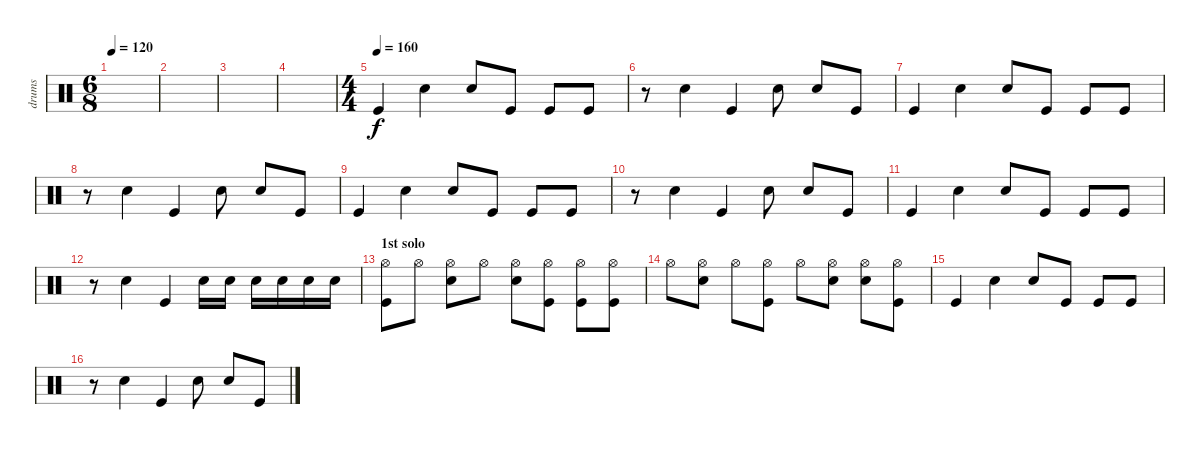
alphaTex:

\track ("drums" "drums") {instrument percussion}
\staff {score}
\articulation defaults
\ts (6 8)
\tempo 120
\clef neutral
\ks c
|
|
|
|
\ts (4 4)
\section ("" "")
\tempo (160)
"Kick (hit)".4 "Electric Snare (hit)".4 "Electric Snare (hit)".8 "Kick (hit)".8 "Kick (hit)".8 "Kick (hit)".8 |
r.8 "Electric Snare (hit)".4 "Kick (hit)".4 "Electric Snare (hit)".8 "Electric Snare (hit)".8 "Kick (hit)".8 |
"Kick (hit)".4 "Electric Snare (hit)".4 "Electric Snare (hit)".8 "Kick (hit)".8 "Kick (hit)".8 "Kick (hit)".8 |
r.8 "Electric Snare (hit)".4 "Kick (hit)".4 "Electric Snare (hit)".8 "Electric Snare (hit)".8 "Kick (hit)".8 |
"Kick (hit)".4 "Electric Snare (hit)".4 "Electric Snare (hit)".8 "Kick (hit)".8 "Kick (hit)".8 "Kick (hit)".8 |
r.8 "Electric Snare (hit)".4 "Kick (hit)".4 "Electric Snare (hit)".8 "Electric Snare (hit)".8 "Kick (hit)".8 |
"Kick (hit)".4 "Electric Snare (hit)".4 "Electric Snare (hit)".8 "Kick (hit)".8 "Kick (hit)".8 "Kick (hit)".8 |
r.8 "Electric Snare (hit)".4 "Kick (hit)".4 "Electric Snare (hit)".16 "Electric Snare (hit)".16 "Electric Snare (hit)".16 "Electric Snare (hit)".16 "Electric Snare (hit)".16 "Electric Snare (hit)".16 |
\section ("" "1st solo")
("Hi-Hat (open)" "Kick (hit)").8 "Hi-Hat (open)".8 ("Hi-Hat (open)" "Electric Snare (hit)").8 "Hi-Hat (open)".8 ("Hi-Hat (open)" "Electric Snare (hit)").8 ("Hi-Hat (open)" "Kick (hit)").8 ("Hi-Hat (open)" "Kick (hit)").8 ("Hi-Hat (open)" "Kick (hit)").8 |
"Hi-Hat (open)".8 ("Hi-Hat (open)" "Electric Snare (hit)").8 "Hi-Hat (open)".8 ("Hi-Hat (open)" "Kick (hit)").8 "Hi-Hat (open)".8 ("Hi-Hat (open)" "Electric Snare (hit)").8 ("Hi-Hat (open)" "Electric Snare (hit)").8 ("Hi-Hat (open)" "Kick (hit)").8 |
"Kick (hit)".4 "Electric Snare (hit)".4 "Electric Snare (hit)".8 "Kick (hit)".8 "Kick (hit)".8 "Kick (hit)".8 |
r.8 "Electric Snare (hit)".4 "Kick (hit)".4 "Electric Snare (hit)".8 "Electric Snare (hit)".8 "Kick (hit)".8
